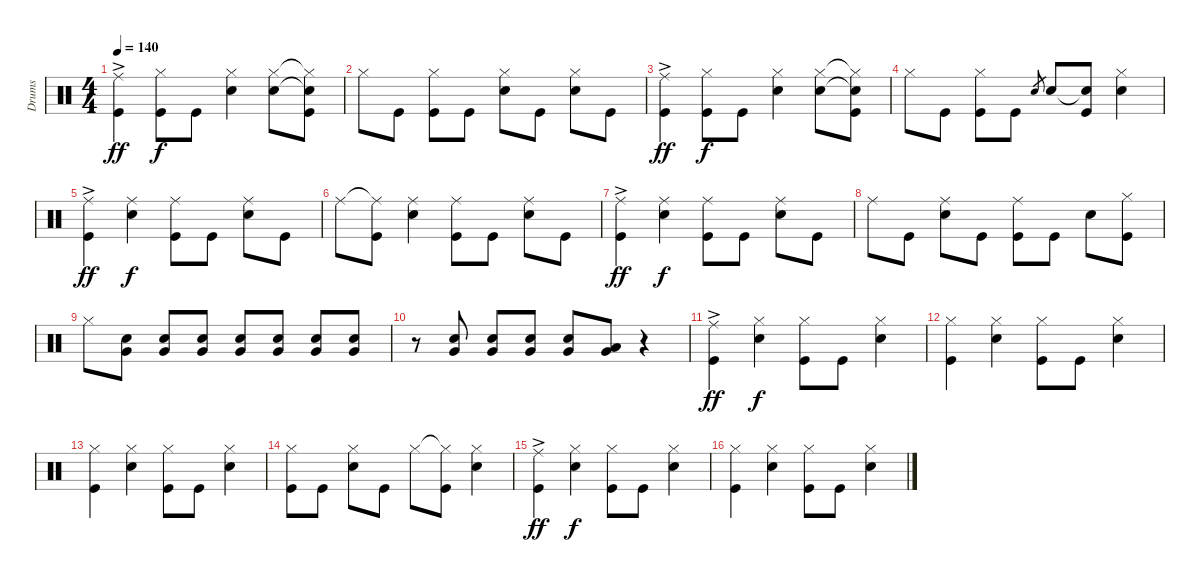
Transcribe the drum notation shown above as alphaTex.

\track ("Drums" "Drums") {instrument percussion}
\staff {score}
\articulation defaults
\ts (4 4)
\tempo 140
\clef neutral
\ks c
("Kick (hit)" "Ride (middle)"{ac}).4{dy ff} ("Kick (hit)" "Hi-Hat (closed)").8{dy f} "Kick (hit)".8 ("Snare (hit) 2" "Hi-Hat (closed)").4 ("Snare (hit) 2" "Hi-Hat (closed)").8 ("Snare (hit) 2"{t} "Hi-Hat (closed)"{t} "Kick (hit)").8 |
"Hi-Hat (closed)".8 "Kick (hit)".8 ("Hi-Hat (closed)" "Kick (hit)").8 "Kick (hit)".8 ("Hi-Hat (closed)" "Snare (hit) 2").8 "Kick (hit)".8 ("Hi-Hat (closed)" "Snare (hit) 2").8 "Kick (hit)".8 |
("Kick (hit)" "Ride (middle)"{ac}).4{dy ff} ("Kick (hit)" "Hi-Hat (closed)").8{dy f} "Kick (hit)".8 ("Snare (hit) 2" "Hi-Hat (closed)").4 ("Snare (hit) 2" "Hi-Hat (closed)").8 ("Snare (hit) 2"{t} "Hi-Hat (closed)"{t} "Kick (hit)").8 |
"Hi-Hat (closed)".8 "Kick (hit)".8 ("Hi-Hat (closed)" "Kick (hit)").8 "Kick (hit)".8 "Snare (hit) 2".8{gr} "Snare (hit) 2".8 ("Snare (hit) 2"{t} "Kick (hit)").8 ("Snare (hit) 2" "Hi-Hat (closed)").4 |
("Kick (hit)"{ac} "Ride (middle)").4{dy ff} ("Snare (hit) 2" "Ride (middle)").4{dy f} ("Kick (hit)" "Ride (middle)").8 "Kick (hit)".8 ("Snare (hit) 2" "Ride (middle)").8 "Kick (hit)".8 |
"Ride (middle)".8 ("Ride (middle)"{t} "Kick (hit)").8 ("Ride (middle)" "Snare (hit) 2").4 ("Kick (hit)" "Ride (middle)").8 "Kick (hit)".8 ("Snare (hit) 2" "Ride (middle)").8 "Kick (hit)".8 |
("Kick (hit)"{ac} "Ride (middle)").4{dy ff} ("Snare (hit) 2" "Ride (middle)").4{dy f} ("Kick (hit)" "Ride (middle)").8 "Kick (hit)".8 ("Snare (hit) 2" "Ride (middle)").8 "Kick (hit)".8 |
"Ride (middle)".8 "Kick (hit)".8 ("Ride (middle)" "Snare (hit) 2").8 "Kick (hit)".8 ("Ride (middle)" "Kick (hit)").8 "Kick (hit)".8 "Snare (hit) 2".8 ("Hi-Hat (closed)" "Kick (hit)").8 |
"Hi-Hat (closed)".8 ("Very Low Tom (hit)" "Snare (hit) 2").8 ("Very Low Tom (hit)" "Snare (hit) 2").8 ("Very Low Tom (hit)" "Snare (hit) 2").8 ("Very Low Tom (hit)" "Snare (hit) 2").8 ("Very Low Tom (hit)" "Snare (hit) 2").8 ("Very Low Tom (hit)" "Snare (hit) 2").8 ("Very Low Tom (hit)" "Snare (hit) 2").8 |
r.8 ("Very Low Tom (hit)" "Snare (hit) 2").8 ("Very Low Tom (hit)" "Snare (hit) 2").8 ("Very Low Tom (hit)" "Snare (hit) 2").8 ("Very Low Tom (hit)" "Snare (hit) 2").8 ("Very Low Tom (hit)" "Low Tom (hit)").8 r.4 |
("Ride (middle)" "Kick (hit)"{ac}).4{dy ff} ("Hi-Hat (closed)" "Snare (hit) 2").4{dy f} ("Kick (hit)" "Hi-Hat (closed)").8 "Kick (hit)".8 ("Hi-Hat (closed)" "Snare (hit) 2").4 |
("Hi-Hat (closed)" "Kick (hit)").4 ("Hi-Hat (closed)" "Snare (hit) 2").4 ("Kick (hit)" "Hi-Hat (closed)").8 "Kick (hit)".8 ("Hi-Hat (closed)" "Snare (hit) 2").4 |
("Hi-Hat (closed)" "Kick (hit)").4 ("Hi-Hat (closed)" "Snare (hit) 2").4 ("Kick (hit)" "Hi-Hat (closed)").8 "Kick (hit)".8 ("Hi-Hat (closed)" "Snare (hit) 2").4 |
("Kick (hit)" "Hi-Hat (closed)").8 "Kick (hit)".8 ("Hi-Hat (closed)" "Snare (hit) 2").8 "Kick (hit)".8 "Hi-Hat (closed)".8 ("Hi-Hat (closed)"{t} "Kick (hit)").8 ("Snare (hit) 2" "Hi-Hat (closed)").4 |
("Ride (middle)" "Kick (hit)"{ac}).4{dy ff} ("Hi-Hat (closed)" "Snare (hit) 2").4{dy f} ("Kick (hit)" "Hi-Hat (closed)").8 "Kick (hit)".8 ("Hi-Hat (closed)" "Snare (hit) 2").4 |
("Hi-Hat (closed)" "Kick (hit)").4 ("Hi-Hat (closed)" "Snare (hit) 2").4 ("Kick (hit)" "Hi-Hat (closed)").8 "Kick (hit)".8 ("Hi-Hat (closed)" "Snare (hit) 2").4
